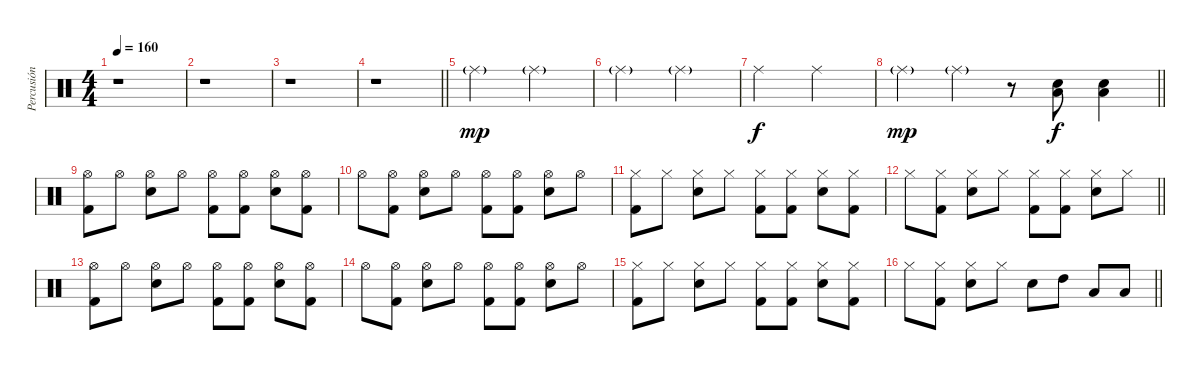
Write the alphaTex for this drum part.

\track ("Percusión (Nevi)" "Percusión ") {instrument percussion}
\staff {score}
\articulation defaults
\ts (4 4)
\tempo 160
\clef neutral
\ks c
r.1{dy mp} |
r.1 |
r.1 |
\barLineRight lightlight
r.1 |
"Ride (middle)"{g}.2 "Ride (middle)"{g}.2 |
"Ride (middle)"{g}.2 "Ride (middle)"{g}.2 |
"Ride (middle)".2{dy f} "Ride (middle)".2 |
\barLineRight lightlight "Ride (middle)"{g}.4{dy mp} "Ride (middle)"{g}.4
r.8 ("Low Tom (hit)" "Snare (hit) 2").8{dy f} ("Low Tom (hit)" "Snare (hit) 2").4 |
("Kick (hit) 2" "Hi-Hat (open)").8 "Hi-Hat (open)".8 ("Hi-Hat (open)" "Snare (hit) 2").8 "Hi-Hat (open)".8 ("Kick (hit) 2" "Hi-Hat (open)").8 ("Kick (hit) 2" "Hi-Hat (open)").8 ("Hi-Hat (open)" "Snare (hit) 2").8 ("Kick (hit) 2" "Hi-Hat (open)").8 |
"Hi-Hat (open)".8 ("Kick (hit) 2" "Hi-Hat (open)").8 ("Hi-Hat (open)" "Snare (hit) 2").8 "Hi-Hat (open)".8 ("Kick (hit) 2" "Hi-Hat (open)").8 ("Kick (hit) 2" "Hi-Hat (open)").8 ("Hi-Hat (open)" "Snare (hit) 2").8 "Hi-Hat (open)".8 |
("Kick (hit) 2" "Hi-Hat (closed)").8 "Hi-Hat (closed)".8 ("Hi-Hat (closed)" "Snare (hit) 2").8 "Hi-Hat (closed)".8 ("Kick (hit) 2" "Hi-Hat (closed)").8 ("Kick (hit) 2" "Hi-Hat (closed)").8 ("Hi-Hat (closed)" "Snare (hit) 2").8 ("Kick (hit) 2" "Hi-Hat (closed)").8 |
\barLineRight lightlight "Hi-Hat (closed)".8
("Kick (hit) 2" "Hi-Hat (closed)").8 ("Hi-Hat (closed)" "Snare (hit) 2").8 "Hi-Hat (closed)".8 ("Kick (hit) 2" "Hi-Hat (closed)").8 ("Kick (hit) 2" "Hi-Hat (closed)").8 ("Hi-Hat (closed)" "Snare (hit) 2").8 "Hi-Hat (closed)".8 |
("Kick (hit) 2" "Hi-Hat (open)").8 "Hi-Hat (open)".8 ("Hi-Hat (open)" "Snare (hit) 2").8 "Hi-Hat (open)".8 ("Kick (hit) 2" "Hi-Hat (open)").8 ("Kick (hit) 2" "Hi-Hat (open)").8 ("Hi-Hat (open)" "Snare (hit) 2").8 ("Kick (hit) 2" "Hi-Hat (open)").8 |
"Hi-Hat (open)".8 ("Kick (hit) 2" "Hi-Hat (open)").8 ("Hi-Hat (open)" "Snare (hit) 2").8 "Hi-Hat (open)".8 ("Kick (hit) 2" "Hi-Hat (open)").8 ("Kick (hit) 2" "Hi-Hat (open)").8 ("Hi-Hat (open)" "Snare (hit) 2").8 "Hi-Hat (open)".8 |
("Kick (hit) 2" "Hi-Hat (closed)").8 "Hi-Hat (closed)".8 ("Hi-Hat (closed)" "Snare (hit) 2").8 "Hi-Hat (closed)".8 ("Kick (hit) 2" "Hi-Hat (closed)").8 ("Kick (hit) 2" "Hi-Hat (closed)").8 ("Hi-Hat (closed)" "Snare (hit) 2").8 ("Kick (hit) 2" "Hi-Hat (closed)").8 |
\barLineRight lightlight "Hi-Hat (closed)".8
("Kick (hit) 2" "Hi-Hat (closed)").8 ("Hi-Hat (closed)" "Snare (hit) 2").8 "Hi-Hat (closed)".8 "Snare (hit) 2".8 "High Tom (hit)".8 "Low Tom (hit)".8 "Low Tom (hit)".8
